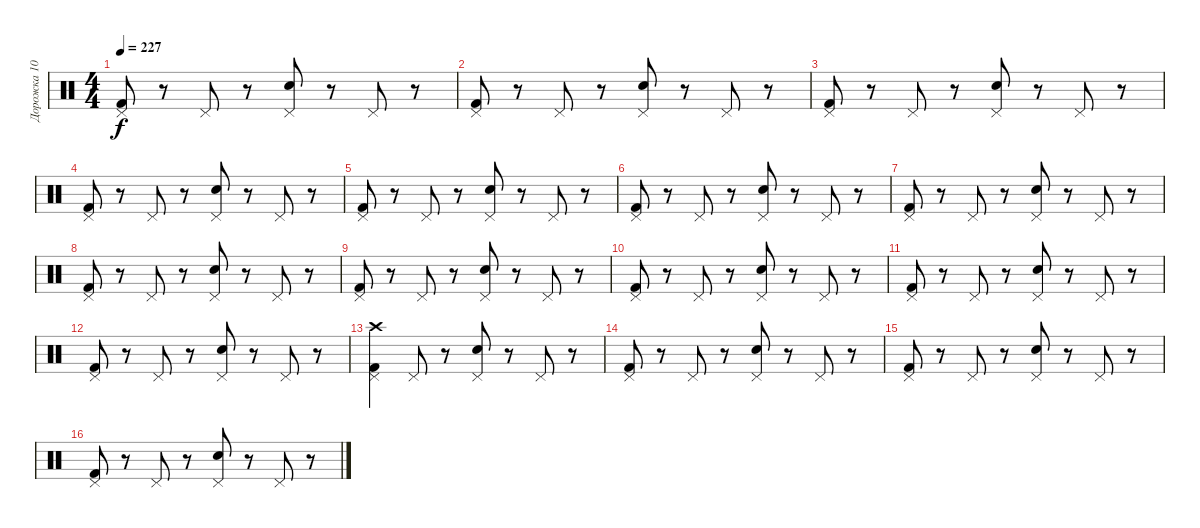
\track ("Дорожка 10" "Дорожка 10") {instrument percussion}
\staff {score}
\articulation defaults
\ts (4 4)
\tempo 227
\clef neutral
\ks c
("Pedal Hi-Hat (hit)" "Kick (hit) 2").8{dy f} r.8 "Pedal Hi-Hat (hit)".8 r.8 ("Pedal Hi-Hat (hit)" "Snare (hit) 2").8 r.8 "Pedal Hi-Hat (hit)".8 r.8 |
("Kick (hit) 2" "Pedal Hi-Hat (hit)").8 r.8 "Pedal Hi-Hat (hit)".8 r.8 ("Pedal Hi-Hat (hit)" "Snare (hit) 2").8 r.8 "Pedal Hi-Hat (hit)".8 r.8 |
("Pedal Hi-Hat (hit)" "Kick (hit) 2").8 r.8 "Pedal Hi-Hat (hit)".8 r.8 ("Pedal Hi-Hat (hit)" "Snare (hit) 2").8 r.8 "Pedal Hi-Hat (hit)".8 r.8 |
("Kick (hit) 2" "Pedal Hi-Hat (hit)").8 r.8 "Pedal Hi-Hat (hit)".8 r.8 ("Pedal Hi-Hat (hit)" "Snare (hit) 2").8 r.8 "Pedal Hi-Hat (hit)".8 r.8 |
("Pedal Hi-Hat (hit)" "Kick (hit) 2").8 r.8 "Pedal Hi-Hat (hit)".8 r.8 ("Pedal Hi-Hat (hit)" "Snare (hit) 2").8 r.8 "Pedal Hi-Hat (hit)".8 r.8 |
("Kick (hit) 2" "Pedal Hi-Hat (hit)").8 r.8 "Pedal Hi-Hat (hit)".8 r.8 ("Pedal Hi-Hat (hit)" "Snare (hit) 2").8 r.8 "Pedal Hi-Hat (hit)".8 r.8 |
("Pedal Hi-Hat (hit)" "Kick (hit) 2").8 r.8 "Pedal Hi-Hat (hit)".8 r.8 ("Pedal Hi-Hat (hit)" "Snare (hit) 2").8 r.8 "Pedal Hi-Hat (hit)".8 r.8 |
("Kick (hit) 2" "Pedal Hi-Hat (hit)").8 r.8 "Pedal Hi-Hat (hit)".8 r.8 ("Pedal Hi-Hat (hit)" "Snare (hit) 2").8 r.8 "Pedal Hi-Hat (hit)".8 r.8 |
("Pedal Hi-Hat (hit)" "Kick (hit) 2").8 r.8 "Pedal Hi-Hat (hit)".8 r.8 ("Pedal Hi-Hat (hit)" "Snare (hit) 2").8 r.8 "Pedal Hi-Hat (hit)".8 r.8 |
("Kick (hit) 2" "Pedal Hi-Hat (hit)").8 r.8 "Pedal Hi-Hat (hit)".8 r.8 ("Pedal Hi-Hat (hit)" "Snare (hit) 2").8 r.8 "Pedal Hi-Hat (hit)".8 r.8 |
("Pedal Hi-Hat (hit)" "Kick (hit) 2").8 r.8 "Pedal Hi-Hat (hit)".8 r.8 ("Pedal Hi-Hat (hit)" "Snare (hit) 2").8 r.8 "Pedal Hi-Hat (hit)".8 r.8 |
("Kick (hit) 2" "Pedal Hi-Hat (hit)").8 r.8 "Pedal Hi-Hat (hit)".8 r.8 ("Pedal Hi-Hat (hit)" "Snare (hit) 2").8 r.8 "Pedal Hi-Hat (hit)".8 r.8 |
("Pedal Hi-Hat (hit)" "Kick (hit) 2" "Crash high (hit)").4 "Pedal Hi-Hat (hit)".8 r.8 ("Pedal Hi-Hat (hit)" "Snare (hit) 2").8 r.8 "Pedal Hi-Hat (hit)".8 r.8 |
("Kick (hit) 2" "Pedal Hi-Hat (hit)").8 r.8 "Pedal Hi-Hat (hit)".8 r.8 ("Pedal Hi-Hat (hit)" "Snare (hit) 2").8 r.8 "Pedal Hi-Hat (hit)".8 r.8 |
("Pedal Hi-Hat (hit)" "Kick (hit) 2").8 r.8 "Pedal Hi-Hat (hit)".8 r.8 ("Pedal Hi-Hat (hit)" "Snare (hit) 2").8 r.8 "Pedal Hi-Hat (hit)".8 r.8 |
("Kick (hit) 2" "Pedal Hi-Hat (hit)").8 r.8 "Pedal Hi-Hat (hit)".8 r.8 ("Pedal Hi-Hat (hit)" "Snare (hit) 2").8 r.8 "Pedal Hi-Hat (hit)".8 r.8
